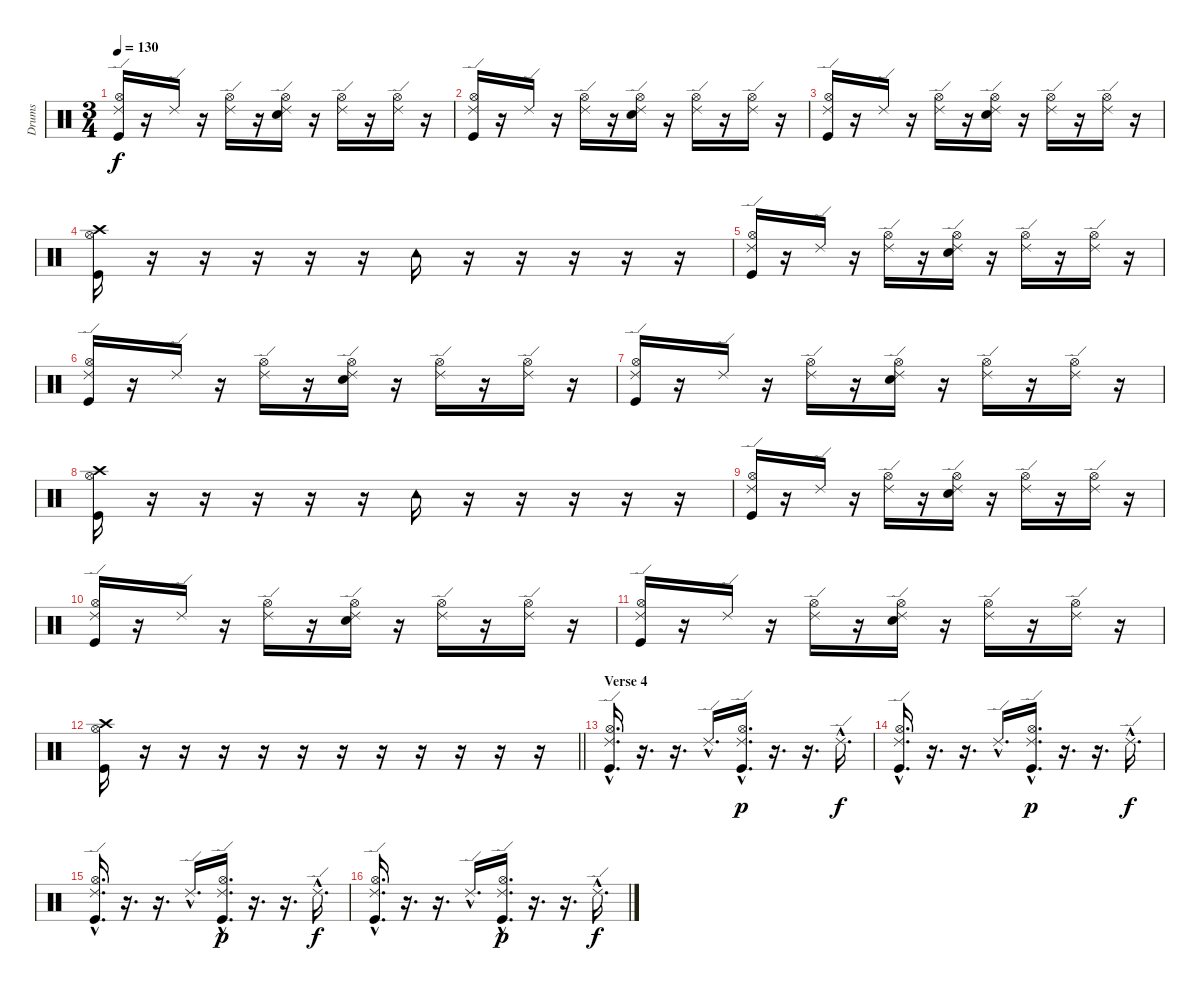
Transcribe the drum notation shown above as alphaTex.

\track ("Drums" "Drums") {instrument percussion}
\staff {score}
\articulation defaults
\ts (3 4)
\tempo 130
\clef neutral
\ks c
("Ride (edge) 2" "Hi-Hat (open)" "Kick (hit)").16{dy f} r.16 "Ride (edge) 2".16 r.16 ("Ride (edge) 2" "Hi-Hat (open)").16 r.16 ("Ride (edge) 2" "Hi-Hat (open)" "Electric Snare (hit)").16 r.16 ("Ride (edge) 2" "Hi-Hat (open)").16 r.16 ("Ride (edge) 2" "Hi-Hat (open)").16 r.16 |
("Ride (edge) 2" "Hi-Hat (open)" "Kick (hit)").16 r.16 "Ride (edge) 2".16 r.16 ("Ride (edge) 2" "Hi-Hat (open)").16 r.16 ("Ride (edge) 2" "Hi-Hat (open)" "Electric Snare (hit)").16 r.16 ("Ride (edge) 2" "Hi-Hat (open)").16 r.16 ("Ride (edge) 2" "Hi-Hat (open)").16 r.16 |
("Ride (edge) 2" "Hi-Hat (open)" "Kick (hit)").16 r.16 "Ride (edge) 2".16 r.16 ("Ride (edge) 2" "Hi-Hat (open)").16 r.16 ("Ride (edge) 2" "Hi-Hat (open)" "Electric Snare (hit)").16 r.16 ("Ride (edge) 2" "Hi-Hat (open)").16 r.16 ("Ride (edge) 2" "Hi-Hat (open)").16 r.16 |
("Crash high (hit)" "Hi-Hat (open)" "Kick (hit)").16 r.16 r.16 r.16 r.16 r.16 "Tambourine (hit)".16 r.16 r.16 r.16 r.16 r.16 |
("Ride (edge) 2" "Hi-Hat (open)" "Kick (hit)").16 r.16 "Ride (edge) 2".16 r.16 ("Ride (edge) 2" "Hi-Hat (open)").16 r.16 ("Ride (edge) 2" "Hi-Hat (open)" "Electric Snare (hit)").16 r.16 ("Ride (edge) 2" "Hi-Hat (open)").16 r.16 ("Ride (edge) 2" "Hi-Hat (open)").16 r.16 |
("Ride (edge) 2" "Hi-Hat (open)" "Kick (hit)").16 r.16 "Ride (edge) 2".16 r.16 ("Ride (edge) 2" "Hi-Hat (open)").16 r.16 ("Ride (edge) 2" "Hi-Hat (open)" "Electric Snare (hit)").16 r.16 ("Ride (edge) 2" "Hi-Hat (open)").16 r.16 ("Ride (edge) 2" "Hi-Hat (open)").16 r.16 |
("Ride (edge) 2" "Hi-Hat (open)" "Kick (hit)").16 r.16 "Ride (edge) 2".16 r.16 ("Ride (edge) 2" "Hi-Hat (open)").16 r.16 ("Ride (edge) 2" "Hi-Hat (open)" "Electric Snare (hit)").16 r.16 ("Ride (edge) 2" "Hi-Hat (open)").16 r.16 ("Ride (edge) 2" "Hi-Hat (open)").16 r.16 |
("Crash high (hit)" "Hi-Hat (open)" "Kick (hit)").16 r.16 r.16 r.16 r.16 r.16 "Tambourine (hit)".16 r.16 r.16 r.16 r.16 r.16 |
("Ride (edge) 2" "Hi-Hat (open)" "Kick (hit)").16 r.16 "Ride (edge) 2".16 r.16 ("Ride (edge) 2" "Hi-Hat (open)").16 r.16 ("Ride (edge) 2" "Hi-Hat (open)" "Electric Snare (hit)").16 r.16 ("Ride (edge) 2" "Hi-Hat (open)").16 r.16 ("Ride (edge) 2" "Hi-Hat (open)").16 r.16 |
("Ride (edge) 2" "Hi-Hat (open)" "Kick (hit)").16 r.16 "Ride (edge) 2".16 r.16 ("Ride (edge) 2" "Hi-Hat (open)").16 r.16 ("Ride (edge) 2" "Hi-Hat (open)" "Electric Snare (hit)").16 r.16 ("Ride (edge) 2" "Hi-Hat (open)").16 r.16 ("Ride (edge) 2" "Hi-Hat (open)").16 r.16 |
("Ride (edge) 2" "Hi-Hat (open)" "Kick (hit)").16 r.16 "Ride (edge) 2".16 r.16 ("Ride (edge) 2" "Hi-Hat (open)").16 r.16 ("Ride (edge) 2" "Hi-Hat (open)" "Electric Snare (hit)").16 r.16 ("Ride (edge) 2" "Hi-Hat (open)").16 r.16 ("Ride (edge) 2" "Hi-Hat (open)").16 r.16 |
\barLineRight lightlight
("Crash high (hit)" "Hi-Hat (open)" "Kick (hit)").16 r.16 r.16 r.16 r.16 r.16 r.16 r.16 r.16 r.16 r.16 r.16 |
\section ("" "Verse 4")
("Ride (edge) 2"{hac} "Hi-Hat (open)"{hac} "Kick (hit)"{hac}).16{d} r.16{d} r.16{d} "Ride (edge) 2"{hac}.16{d} ("Ride (edge) 2"{hac} "Hi-Hat (open)"{hac} "Kick (hit)"{hac}).16{d dy p} r.16{d} r.16{d} "Ride (edge) 2"{hac}.16{d dy f} |
("Ride (edge) 2"{hac} "Hi-Hat (open)"{hac} "Kick (hit)"{hac}).16{d} r.16{d} r.16{d} "Ride (edge) 2"{hac}.16{d} ("Ride (edge) 2"{hac} "Hi-Hat (open)"{hac} "Kick (hit)"{hac}).16{d dy p} r.16{d} r.16{d} "Ride (edge) 2"{hac}.16{d dy f} |
("Ride (edge) 2"{hac} "Hi-Hat (open)"{hac} "Kick (hit)"{hac}).16{d} r.16{d} r.16{d} "Ride (edge) 2"{hac}.16{d} ("Ride (edge) 2"{hac} "Hi-Hat (open)"{hac} "Kick (hit)"{hac}).16{d dy p} r.16{d} r.16{d} "Ride (edge) 2"{hac}.16{d dy f} |
("Ride (edge) 2"{hac} "Hi-Hat (open)"{hac} "Kick (hit)"{hac}).16{d} r.16{d} r.16{d} "Ride (edge) 2"{hac}.16{d} ("Ride (edge) 2"{hac} "Hi-Hat (open)"{hac} "Kick (hit)"{hac}).16{d dy p} r.16{d} r.16{d} "Ride (edge) 2"{hac}.16{d dy f}
